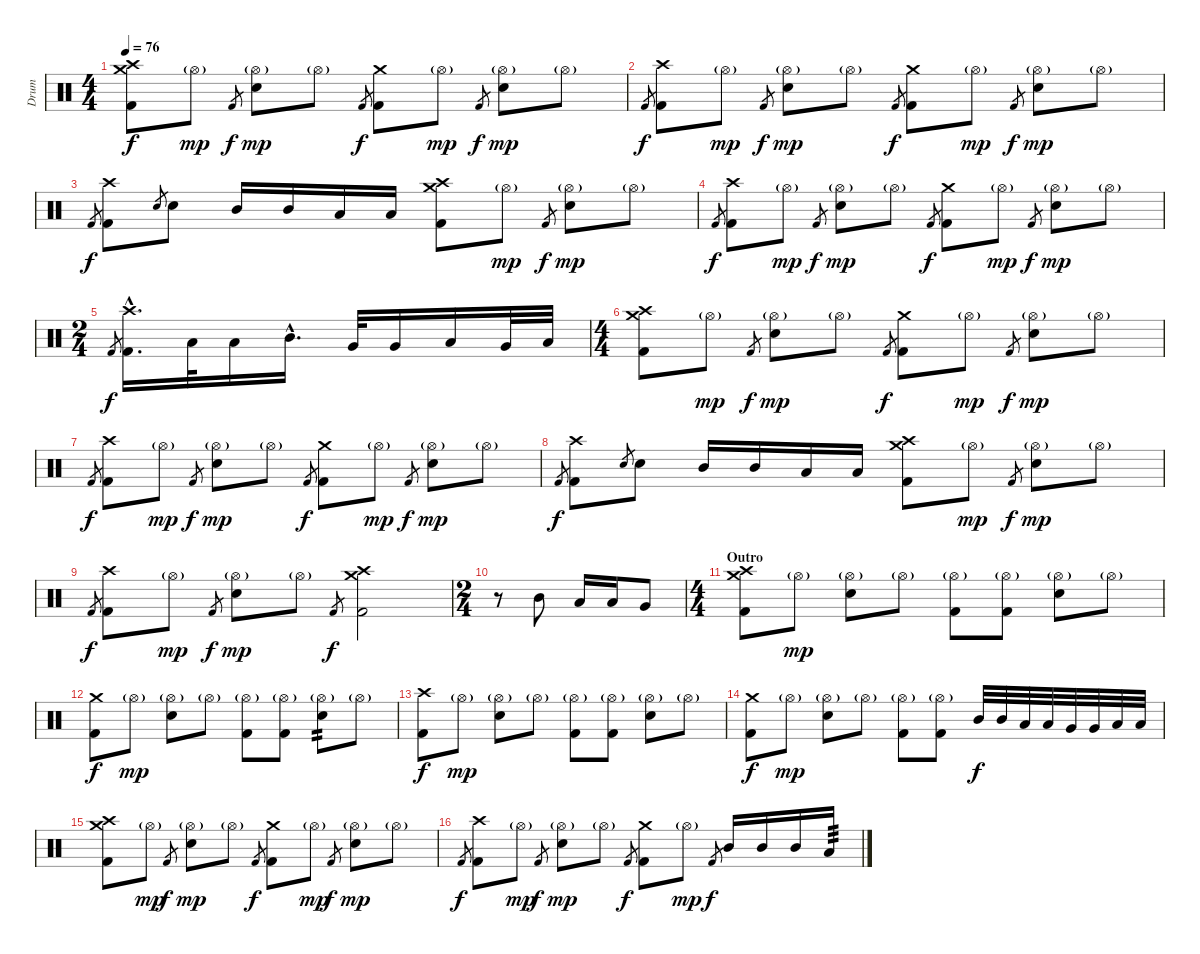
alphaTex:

\track ("Drum" "Drum") {instrument percussion}
\staff {score}
\articulation defaults
\ts (4 4)
\section ("" "")
\tempo 76
\clef neutral
\ks c
("Kick (hit) 2" "Crash medium (hit)" "Crash high (hit)").8{dy f} "Hi-Hat (open)"{g}.8{dy mp} "Kick (hit) 2".8{gr dy f} ("Hi-Hat (open)"{g} "Electric Snare (hit)").8{dy mp} "Hi-Hat (open)"{g}.8 "Kick (hit) 2".8{gr dy f} ("Kick (hit) 2" "Crash medium (hit)").8 "Hi-Hat (open)"{g}.8{dy mp} "Kick (hit) 2".8{gr dy f} ("Hi-Hat (open)"{g} "Electric Snare (hit)").8{dy mp} "Hi-Hat (open)"{g}.8 |
"Kick (hit) 2".8{gr dy f} ("Kick (hit) 2" "Crash high (hit)").8 "Hi-Hat (open)"{g}.8{dy mp} "Kick (hit) 2".8{gr dy f} ("Hi-Hat (open)"{g} "Electric Snare (hit)").8{dy mp} "Hi-Hat (open)"{g}.8 "Kick (hit) 2".8{gr dy f} ("Kick (hit) 2" "Crash medium (hit)").8 "Hi-Hat (open)"{g}.8{dy mp} "Kick (hit) 2".8{gr dy f} ("Hi-Hat (open)"{g} "Electric Snare (hit)").8{dy mp} "Hi-Hat (open)"{g}.8 |
"Kick (hit) 2".8{gr dy f} ("Kick (hit) 2" "Crash high (hit)").8 "Electric Snare (hit)".8{gr} "Electric Snare (hit)".8 "Mid Tom (hit)".16 "Mid Tom (hit)".16 "Low Tom (hit)".16 "Low Tom (hit)".16 ("Kick (hit) 2" "Crash medium (hit)" "Crash high (hit)").8 "Hi-Hat (open)"{g}.8{dy mp} "Kick (hit) 2".8{gr dy f} ("Hi-Hat (open)"{g} "Electric Snare (hit)").8{dy mp} "Hi-Hat (open)"{g}.8 |
"Kick (hit) 2".8{gr dy f} ("Kick (hit) 2" "Crash high (hit)").8 "Hi-Hat (open)"{g}.8{dy mp} "Kick (hit) 2".8{gr dy f} ("Hi-Hat (open)"{g} "Electric Snare (hit)").8{dy mp} "Hi-Hat (open)"{g}.8 "Kick (hit) 2".8{gr dy f} ("Kick (hit) 2" "Crash medium (hit)").8 "Hi-Hat (open)"{g}.8{dy mp} "Kick (hit) 2".8{gr dy f} ("Hi-Hat (open)"{g} "Electric Snare (hit)").8{dy mp} "Hi-Hat (open)"{g}.8 |
\ts (2 4)
"Kick (hit) 2".8{gr dy f} ("Kick (hit) 2"{hac} "Crash high (hit)"{hac}).16{d} "Low Tom (hit)".32 "Low Tom (hit)".16 "Mid Tom (hit)"{hac}.16{d} "Very Low Tom (hit)".32 "Very Low Tom (hit)".16 "Low Tom (hit)".16 "Very Low Tom (hit)".32 "Low Floor Tom (hit)".32 |
\ts (4 4)
("Kick (hit) 2" "Crash medium (hit)" "Crash high (hit)").8 "Hi-Hat (open)"{g}.8{dy mp} "Kick (hit) 2".8{gr dy f} ("Hi-Hat (open)"{g} "Electric Snare (hit)").8{dy mp} "Hi-Hat (open)"{g}.8 "Kick (hit) 2".8{gr dy f} ("Kick (hit) 2" "Crash medium (hit)").8 "Hi-Hat (open)"{g}.8{dy mp} "Kick (hit) 2".8{gr dy f} ("Hi-Hat (open)"{g} "Electric Snare (hit)").8{dy mp} "Hi-Hat (open)"{g}.8 |
"Kick (hit) 2".8{gr dy f} ("Kick (hit) 2" "Crash high (hit)").8 "Hi-Hat (open)"{g}.8{dy mp} "Kick (hit) 2".8{gr dy f} ("Hi-Hat (open)"{g} "Electric Snare (hit)").8{dy mp} "Hi-Hat (open)"{g}.8 "Kick (hit) 2".8{gr dy f} ("Kick (hit) 2" "Crash medium (hit)").8 "Hi-Hat (open)"{g}.8{dy mp} "Kick (hit) 2".8{gr dy f} ("Hi-Hat (open)"{g} "Electric Snare (hit)").8{dy mp} "Hi-Hat (open)"{g}.8 |
"Kick (hit) 2".8{gr dy f} ("Kick (hit) 2" "Crash high (hit)").8 "Electric Snare (hit)".8{gr} "Electric Snare (hit)".8 "Mid Tom (hit)".16 "Mid Tom (hit)".16 "Low Tom (hit)".16 "Low Tom (hit)".16 ("Kick (hit) 2" "Crash medium (hit)" "Crash high (hit)").8 "Hi-Hat (open)"{g}.8{dy mp} "Kick (hit) 2".8{gr dy f} ("Hi-Hat (open)"{g} "Electric Snare (hit)").8{dy mp} "Hi-Hat (open)"{g}.8 |
"Kick (hit) 2".8{gr dy f} ("Kick (hit) 2" "Crash high (hit)").8 "Hi-Hat (open)"{g}.8{dy mp} "Kick (hit) 2".8{gr dy f} ("Hi-Hat (open)"{g} "Electric Snare (hit)").8{dy mp} "Hi-Hat (open)"{g}.8 "Kick (hit) 2".8{gr dy f} ("Kick (hit) 2" "Crash medium (hit)" "Crash high (hit)").2 |
\ts (2 4)
r.8 "Mid Tom (hit)".8 "Low Tom (hit)".16 "Low Tom (hit)".16 "Very Low Tom (hit)".8 |
\ts (4 4)
\section ("" "Outro")
("Kick (hit) 2" "Crash medium (hit)" "Crash high (hit)").8 "Hi-Hat (open)"{g}.8{dy mp} ("Hi-Hat (open)"{g} "Electric Snare (hit)").8 "Hi-Hat (open)"{g}.8 ("Hi-Hat (open)"{g} "Kick (hit) 2").8 ("Hi-Hat (open)"{g} "Kick (hit) 2").8 ("Hi-Hat (open)"{g} "Electric Snare (hit)").8 "Hi-Hat (open)"{g}.8 |
("Kick (hit) 2" "Crash medium (hit)").8{dy f} "Hi-Hat (open)"{g}.8{dy mp} ("Hi-Hat (open)"{g} "Electric Snare (hit)").8 "Hi-Hat (open)"{g}.8 ("Hi-Hat (open)"{g} "Kick (hit) 2").8 ("Hi-Hat (open)"{g} "Kick (hit) 2").8 ("Hi-Hat (open)"{g} "Electric Snare (hit)").8{tp 2} "Hi-Hat (open)"{g}.8 |
("Kick (hit) 2" "Crash high (hit)").8{dy f} "Hi-Hat (open)"{g}.8{dy mp} ("Hi-Hat (open)"{g} "Electric Snare (hit)").8 "Hi-Hat (open)"{g}.8 ("Hi-Hat (open)"{g} "Kick (hit) 2").8 ("Hi-Hat (open)"{g} "Kick (hit) 2").8 ("Hi-Hat (open)"{g} "Electric Snare (hit)").8 "Hi-Hat (open)"{g}.8 |
("Kick (hit) 2" "Crash medium (hit)").8{dy f} "Hi-Hat (open)"{g}.8{dy mp} ("Hi-Hat (open)"{g} "Electric Snare (hit)").8 "Hi-Hat (open)"{g}.8 ("Hi-Hat (open)"{g} "Kick (hit) 2").8 ("Hi-Hat (open)"{g} "Kick (hit) 2").8 "Mid Tom (hit)".32{dy f} "Mid Tom (hit)".32 "Low Tom (hit)".32 "Low Tom (hit)".32 "Very Low Tom (hit)".32 "Very Low Tom (hit)".32 "Low Floor Tom (hit)".32 "Low Floor Tom (hit)".32 |
("Kick (hit) 2" "Crash medium (hit)" "Crash high (hit)").8 "Hi-Hat (open)"{g}.8{dy mp} "Kick (hit) 2".8{gr dy f} ("Hi-Hat (open)"{g} "Electric Snare (hit)").8{dy mp} "Hi-Hat (open)"{g}.8 "Kick (hit) 2".8{gr dy f} ("Kick (hit) 2" "Crash medium (hit)").8 "Hi-Hat (open)"{g}.8{dy mp} "Kick (hit) 2".8{gr dy f} ("Hi-Hat (open)"{g} "Electric Snare (hit)").8{dy mp} "Hi-Hat (open)"{g}.8 |
"Kick (hit) 2".8{gr dy f} ("Kick (hit) 2" "Crash high (hit)").8 "Hi-Hat (open)"{g}.8{dy mp} "Kick (hit) 2".8{gr dy f} ("Hi-Hat (open)"{g} "Electric Snare (hit)").8{dy mp} "Hi-Hat (open)"{g}.8 "Kick (hit) 2".8{gr dy f} ("Kick (hit) 2" "Crash medium (hit)").8 "Hi-Hat (open)"{g}.8{dy mp} "Kick (hit) 2".8{gr dy f} "Mid Tom (hit)".16 "Mid Tom (hit)".16 "Mid Tom (hit)".16 "Low Tom (hit)".16{tp 3}
